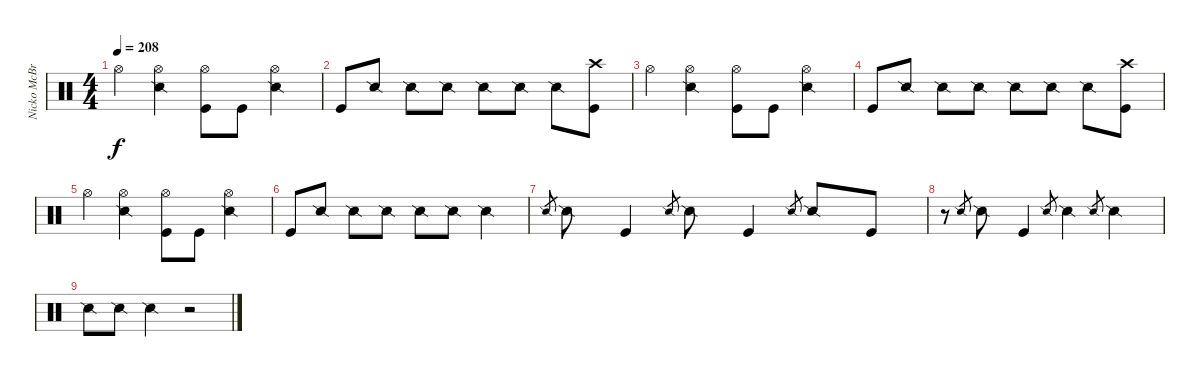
\track ("Nicko McBrain" "Nicko McBr") {instrument percussion}
\staff {score}
\articulation defaults
\ts (4 4)
\tempo 208
\clef neutral
\ks c "Hi-Hat (open)".4{dy f}
("Hi-Hat (open)" "Snare (side stick) 2").4 ("Hi-Hat (open)" "Kick (hit)").8 "Kick (hit)".8 ("Hi-Hat (open)" "Snare (side stick) 2").4 |
"Kick (hit)".8 "Snare (side stick) 2".8 "Snare (side stick) 2".8 "Snare (side stick) 2".8 "Snare (side stick) 2".8 "Snare (side stick) 2".8 "Snare (side stick) 2".8 ("Crash high (hit)" "Kick (hit)").8 |
"Hi-Hat (open)".4 ("Hi-Hat (open)" "Snare (side stick) 2").4 ("Hi-Hat (open)" "Kick (hit)").8 "Kick (hit)".8 ("Hi-Hat (open)" "Snare (side stick) 2").4 |
"Kick (hit)".8 "Snare (side stick) 2".8 "Snare (side stick) 2".8 "Snare (side stick) 2".8 "Snare (side stick) 2".8 "Snare (side stick) 2".8 "Snare (side stick) 2".8 ("Crash high (hit)" "Kick (hit)").8 |
"Hi-Hat (open)".4 ("Hi-Hat (open)" "Snare (side stick) 2").4 ("Hi-Hat (open)" "Kick (hit)").8 "Kick (hit)".8 ("Hi-Hat (open)" "Snare (side stick) 2").4 |
"Kick (hit)".8 "Snare (side stick) 2".8 "Snare (side stick) 2".8 "Snare (side stick) 2".8 "Snare (side stick) 2".8 "Snare (side stick) 2".8 "Snare (side stick) 2".4 |
"Snare (side stick) 2".8{gr} "Snare (side stick) 2".8 "Kick (hit)".4 "Snare (side stick) 2".8{gr} "Snare (side stick) 2".8 "Kick (hit)".4 "Snare (side stick) 2".8{gr} "Snare (side stick) 2".8 "Kick (hit)".8 |
r.8 "Snare (side stick) 2".8{gr} "Snare (side stick) 2".8 "Kick (hit)".4 "Snare (side stick) 2".8{gr} "Snare (side stick) 2".4 "Snare (side stick) 2".8{gr} "Snare (side stick) 2".4 |
"Snare (side stick) 2".8 "Snare (side stick) 2".8 "Snare (side stick) 2".4 r.2
